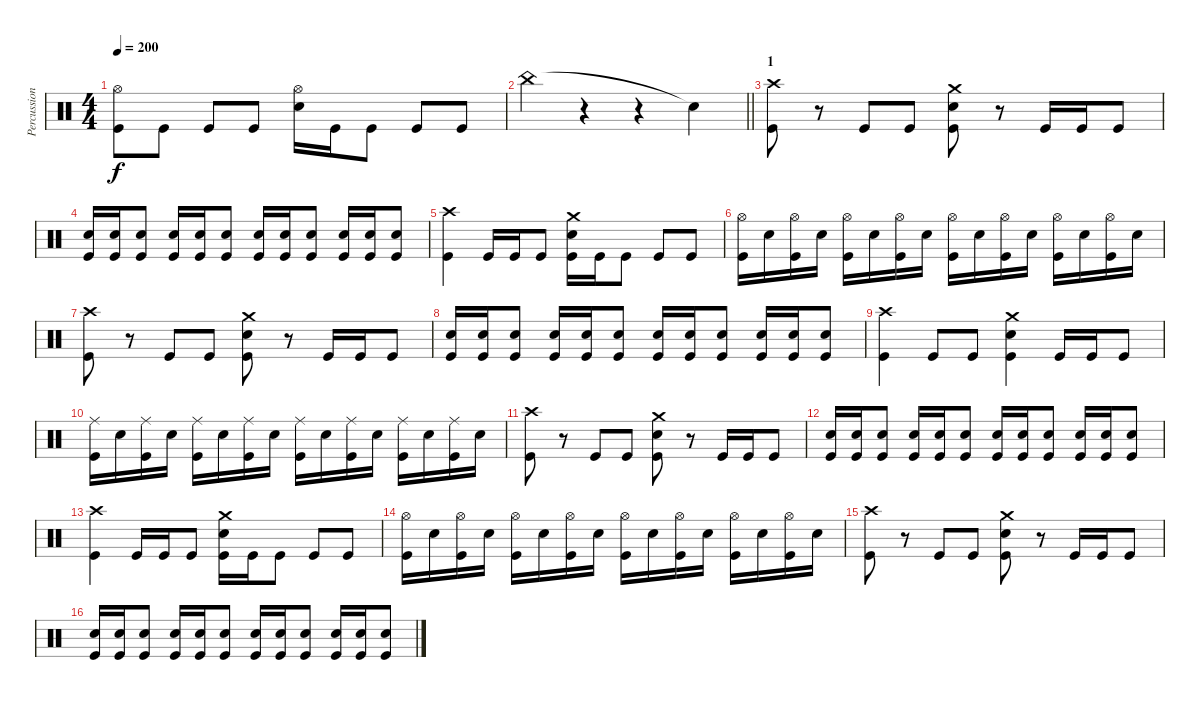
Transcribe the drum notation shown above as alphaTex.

\track ("Percussion" "Percussion") {instrument percussion}
\staff {score}
\articulation defaults
\ts (4 4)
\tempo 200
\clef neutral
\ks c
("Hi-Hat (open)" "Kick (hit)").8{dy f} "Kick (hit)".8 "Kick (hit)".8 "Kick (hit)".8 ("Hi-Hat (open)" "Snare (hit) 2").16 "Kick (hit)".16 "Kick (hit)".8 "Kick (hit)".8 "Kick (hit)".8 |
\barLineRight lightlight "China (hit)".4
r.4 r.4 "Snare (hit)"{t}.4 |
\section ("" "1")
("Crash high (hit)" "Kick (hit)").8 r.8 "Kick (hit)".8 "Kick (hit)".8 ("Crash medium (hit)" "Snare (hit) 2" "Kick (hit)").8 r.8 "Kick (hit)".16 "Kick (hit)".16 "Kick (hit)".8 |
("Snare (hit) 2" "Kick (hit)").16 ("Snare (hit) 2" "Kick (hit)").16 ("Snare (hit) 2" "Kick (hit)").8 ("Snare (hit) 2" "Kick (hit)").16 ("Snare (hit) 2" "Kick (hit)").16 ("Snare (hit) 2" "Kick (hit)").8 ("Snare (hit) 2" "Kick (hit)").16 ("Snare (hit) 2" "Kick (hit)").16 ("Snare (hit) 2" "Kick (hit)").8 ("Snare (hit) 2" "Kick (hit)").16 ("Snare (hit) 2" "Kick (hit)").16 ("Snare (hit) 2" "Kick (hit)").8 |
("Crash high (hit)" "Kick (hit)").4 "Kick (hit)".16 "Kick (hit)".16 "Kick (hit)".8 ("Crash medium (hit)" "Snare (hit) 2" "Kick (hit)").16 "Kick (hit)".16 "Kick (hit)".8 "Kick (hit)".8 "Kick (hit)".8 |
("Hi-Hat (open)" "Kick (hit)").16 "Snare (hit) 2".16 ("Hi-Hat (open)" "Kick (hit)").16 "Snare (hit) 2".16 ("Hi-Hat (open)" "Kick (hit)").16 "Snare (hit) 2".16 ("Hi-Hat (open)" "Kick (hit)").16 "Snare (hit) 2".16 ("Hi-Hat (open)" "Kick (hit)").16 "Snare (hit) 2".16 ("Hi-Hat (open)" "Kick (hit)").16 "Snare (hit) 2".16 ("Hi-Hat (open)" "Kick (hit)").16 "Snare (hit) 2".16 ("Hi-Hat (open)" "Kick (hit)").16 "Snare (hit) 2".16 |
("Crash high (hit)" "Kick (hit)").8 r.8 "Kick (hit)".8 "Kick (hit)".8 ("Crash medium (hit)" "Snare (hit) 2" "Kick (hit)").8 r.8 "Kick (hit)".16 "Kick (hit)".16 "Kick (hit)".8 |
("Snare (hit) 2" "Kick (hit)").16 ("Snare (hit) 2" "Kick (hit)").16 ("Snare (hit) 2" "Kick (hit)").8 ("Snare (hit) 2" "Kick (hit)").16 ("Snare (hit) 2" "Kick (hit)").16 ("Snare (hit) 2" "Kick (hit)").8 ("Snare (hit) 2" "Kick (hit)").16 ("Snare (hit) 2" "Kick (hit)").16 ("Snare (hit) 2" "Kick (hit)").8 ("Snare (hit) 2" "Kick (hit)").16 ("Snare (hit) 2" "Kick (hit)").16 ("Snare (hit) 2" "Kick (hit)").8 |
("Crash high (hit)" "Kick (hit)").4 "Kick (hit)".8 "Kick (hit)".8 ("Crash medium (hit)" "Snare (hit) 2" "Kick (hit)").4 "Kick (hit)".16 "Kick (hit)".16 "Kick (hit)".8 |
("Ride (middle)" "Kick (hit)").16 "Snare (hit) 2".16 ("Ride (middle)" "Kick (hit)").16 "Snare (hit) 2".16 ("Ride (middle)" "Kick (hit)").16 "Snare (hit) 2".16 ("Ride (middle)" "Kick (hit)").16 "Snare (hit) 2".16 ("Ride (middle)" "Kick (hit)").16 "Snare (hit) 2".16 ("Ride (middle)" "Kick (hit)").16 "Snare (hit) 2".16 ("Ride (middle)" "Kick (hit)").16 "Snare (hit) 2".16 ("Ride (middle)" "Kick (hit)").16 "Snare (hit) 2".16 |
("Crash high (hit)" "Kick (hit)").8 r.8 "Kick (hit)".8 "Kick (hit)".8 ("Crash medium (hit)" "Snare (hit) 2" "Kick (hit)").8 r.8 "Kick (hit)".16 "Kick (hit)".16 "Kick (hit)".8 |
("Snare (hit) 2" "Kick (hit)").16 ("Snare (hit) 2" "Kick (hit)").16 ("Snare (hit) 2" "Kick (hit)").8 ("Snare (hit) 2" "Kick (hit)").16 ("Snare (hit) 2" "Kick (hit)").16 ("Snare (hit) 2" "Kick (hit)").8 ("Snare (hit) 2" "Kick (hit)").16 ("Snare (hit) 2" "Kick (hit)").16 ("Snare (hit) 2" "Kick (hit)").8 ("Snare (hit) 2" "Kick (hit)").16 ("Snare (hit) 2" "Kick (hit)").16 ("Snare (hit) 2" "Kick (hit)").8 |
("Crash high (hit)" "Kick (hit)").4 "Kick (hit)".16 "Kick (hit)".16 "Kick (hit)".8 ("Crash medium (hit)" "Snare (hit) 2" "Kick (hit)").16 "Kick (hit)".16 "Kick (hit)".8 "Kick (hit)".8 "Kick (hit)".8 |
("Hi-Hat (open)" "Kick (hit)").16 "Snare (hit) 2".16 ("Hi-Hat (open)" "Kick (hit)").16 "Snare (hit) 2".16 ("Hi-Hat (open)" "Kick (hit)").16 "Snare (hit) 2".16 ("Hi-Hat (open)" "Kick (hit)").16 "Snare (hit) 2".16 ("Hi-Hat (open)" "Kick (hit)").16 "Snare (hit) 2".16 ("Hi-Hat (open)" "Kick (hit)").16 "Snare (hit) 2".16 ("Hi-Hat (open)" "Kick (hit)").16 "Snare (hit) 2".16 ("Hi-Hat (open)" "Kick (hit)").16 "Snare (hit) 2".16 |
("Crash high (hit)" "Kick (hit)").8 r.8 "Kick (hit)".8 "Kick (hit)".8 ("Crash medium (hit)" "Snare (hit) 2" "Kick (hit)").8 r.8 "Kick (hit)".16 "Kick (hit)".16 "Kick (hit)".8 |
("Snare (hit) 2" "Kick (hit)").16 ("Snare (hit) 2" "Kick (hit)").16 ("Snare (hit) 2" "Kick (hit)").8 ("Snare (hit) 2" "Kick (hit)").16 ("Snare (hit) 2" "Kick (hit)").16 ("Snare (hit) 2" "Kick (hit)").8 ("Snare (hit) 2" "Kick (hit)").16 ("Snare (hit) 2" "Kick (hit)").16 ("Snare (hit) 2" "Kick (hit)").8 ("Snare (hit) 2" "Kick (hit)").16 ("Snare (hit) 2" "Kick (hit)").16 ("Snare (hit) 2" "Kick (hit)").8
